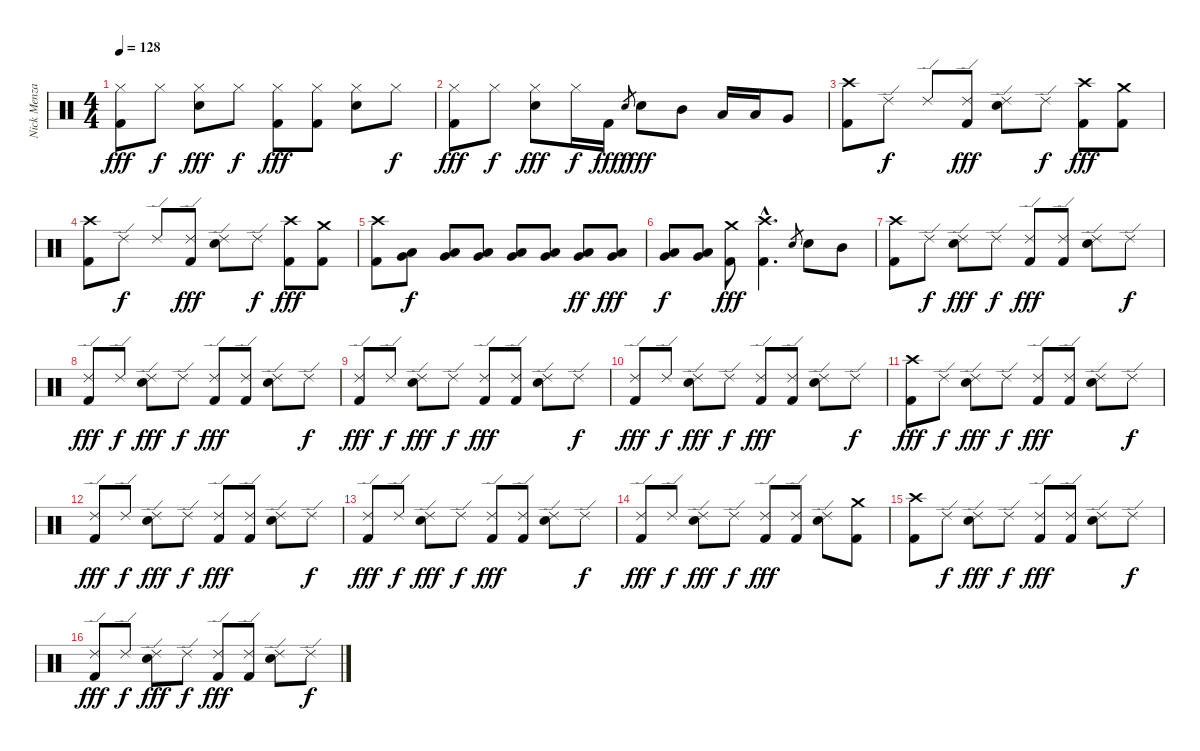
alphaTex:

\track ("Nick Menza" "Nick Menza") {instrument percussion}
\staff {score}
\articulation defaults
\ts (4 4)
\tempo 128
\clef neutral
\ks c
("Hi-Hat (closed)" "Kick (hit) 2").8{dy fff} "Hi-Hat (closed)".8{dy f} ("Hi-Hat (closed)" "Electric Snare (hit)").8{dy fff} "Hi-Hat (closed)".8{dy f} ("Hi-Hat (closed)" "Kick (hit) 2").8{dy fff} ("Hi-Hat (closed)" "Kick (hit) 2").8 ("Hi-Hat (closed)" "Electric Snare (hit)").8 "Hi-Hat (closed)".8{dy f} |
("Hi-Hat (closed)" "Kick (hit) 2").8{dy fff} "Hi-Hat (closed)".8{dy f} ("Hi-Hat (closed)" "Electric Snare (hit)").8{dy fff} "Hi-Hat (closed)".16{dy f} "Kick (hit) 2".16{dy fff} "Electric Snare (hit)".8{gr dy f} "Electric Snare (hit)".8{dy fff} "Mid Tom (hit)".8 "Low Tom (hit)".16 "Low Tom (hit)".16 "Very Low Tom (hit)".8 |
("Crash high (hit)" "Kick (hit) 2").8 "Ride (edge) 2".8{dy f} "Ride (edge) 2".8 ("Ride (edge) 2" "Kick (hit) 2").8{dy fff} ("Ride (edge) 2" "Electric Snare (hit)").8 "Ride (edge) 2".8{dy f} ("Crash high (hit)" "Kick (hit) 2").8{dy fff} ("Crash medium (hit)" "Kick (hit) 2").8 |
("Crash high (hit)" "Kick (hit) 2").8 "Ride (edge) 2".8{dy f} "Ride (edge) 2".8 ("Ride (edge) 2" "Kick (hit) 2").8{dy fff} ("Ride (edge) 2" "Electric Snare (hit)").8 "Ride (edge) 2".8{dy f} ("Crash high (hit)" "Kick (hit) 2").8{dy fff} ("Crash medium (hit)" "Kick (hit) 2").8 |
("Crash high (hit)" "Kick (hit) 2").8 ("Very Low Tom (hit)" "Low Floor Tom (hit)").8{dy f} ("Very Low Tom (hit)" "Low Floor Tom (hit)").8 ("Very Low Tom (hit)" "Low Floor Tom (hit)").8 ("Very Low Tom (hit)" "Low Floor Tom (hit)").8 ("Very Low Tom (hit)" "Low Floor Tom (hit)").8 ("Very Low Tom (hit)" "Low Floor Tom (hit)").8{dy ff} ("Very Low Tom (hit)" "Low Floor Tom (hit)").8{dy fff} |
("Very Low Tom (hit)" "Low Floor Tom (hit)").8{dy f} ("Very Low Tom (hit)" "Low Floor Tom (hit)").8 ("Crash medium (hit)" "Kick (hit) 2").8{dy fff} ("Crash high (hit)"{hac} "Kick (hit) 2"{hac}).4{d} "Electric Snare (hit)".8{gr} "Electric Snare (hit)".8 "Mid Tom (hit)".8 |
("Crash high (hit)" "Kick (hit) 2").8 "Ride (edge) 2".8{dy f} ("Ride (edge) 2" "Electric Snare (hit)").8{dy fff} "Ride (edge) 2".8{dy f} ("Ride (edge) 2" "Kick (hit) 2").8{dy fff} ("Ride (edge) 2" "Kick (hit) 2").8 ("Ride (edge) 2" "Electric Snare (hit)").8 "Ride (edge) 2".8{dy f} |
("Ride (edge) 2" "Kick (hit) 2").8{dy fff} "Ride (edge) 2".8{dy f} ("Ride (edge) 2" "Electric Snare (hit)").8{dy fff} "Ride (edge) 2".8{dy f} ("Ride (edge) 2" "Kick (hit) 2").8{dy fff} ("Ride (edge) 2" "Kick (hit) 2").8 ("Ride (edge) 2" "Electric Snare (hit)").8 "Ride (edge) 2".8{dy f} |
("Ride (edge) 2" "Kick (hit) 2").8{dy fff} "Ride (edge) 2".8{dy f} ("Ride (edge) 2" "Electric Snare (hit)").8{dy fff} "Ride (edge) 2".8{dy f} ("Ride (edge) 2" "Kick (hit) 2").8{dy fff} ("Ride (edge) 2" "Kick (hit) 2").8 ("Ride (edge) 2" "Electric Snare (hit)").8 "Ride (edge) 2".8{dy f} |
("Ride (edge) 2" "Kick (hit) 2").8{dy fff} "Ride (edge) 2".8{dy f} ("Ride (edge) 2" "Electric Snare (hit)").8{dy fff} "Ride (edge) 2".8{dy f} ("Ride (edge) 2" "Kick (hit) 2").8{dy fff} ("Ride (edge) 2" "Kick (hit) 2").8 ("Ride (edge) 2" "Electric Snare (hit)").8 "Ride (edge) 2".8{dy f} |
("Crash high (hit)" "Kick (hit) 2").8{dy fff} "Ride (edge) 2".8{dy f} ("Ride (edge) 2" "Electric Snare (hit)").8{dy fff} "Ride (edge) 2".8{dy f} ("Ride (edge) 2" "Kick (hit) 2").8{dy fff} ("Ride (edge) 2" "Kick (hit) 2").8 ("Ride (edge) 2" "Electric Snare (hit)").8 "Ride (edge) 2".8{dy f} |
("Ride (edge) 2" "Kick (hit) 2").8{dy fff} "Ride (edge) 2".8{dy f} ("Ride (edge) 2" "Electric Snare (hit)").8{dy fff} "Ride (edge) 2".8{dy f} ("Ride (edge) 2" "Kick (hit) 2").8{dy fff} ("Ride (edge) 2" "Kick (hit) 2").8 ("Ride (edge) 2" "Electric Snare (hit)").8 "Ride (edge) 2".8{dy f} |
("Ride (edge) 2" "Kick (hit) 2").8{dy fff} "Ride (edge) 2".8{dy f} ("Ride (edge) 2" "Electric Snare (hit)").8{dy fff} "Ride (edge) 2".8{dy f} ("Ride (edge) 2" "Kick (hit) 2").8{dy fff} ("Ride (edge) 2" "Kick (hit) 2").8 ("Ride (edge) 2" "Electric Snare (hit)").8 "Ride (edge) 2".8{dy f} |
("Ride (edge) 2" "Kick (hit) 2").8{dy fff} "Ride (edge) 2".8{dy f} ("Ride (edge) 2" "Electric Snare (hit)").8{dy fff} "Ride (edge) 2".8{dy f} ("Ride (edge) 2" "Kick (hit) 2").8{dy fff} ("Ride (edge) 2" "Kick (hit) 2").8 ("Ride (edge) 2" "Electric Snare (hit)").8 ("Crash medium (hit)" "Kick (hit) 2").8 |
("Crash high (hit)" "Kick (hit) 2").8 "Ride (edge) 2".8{dy f} ("Ride (edge) 2" "Electric Snare (hit)").8{dy fff} "Ride (edge) 2".8{dy f} ("Ride (edge) 2" "Kick (hit) 2").8{dy fff} ("Ride (edge) 2" "Kick (hit) 2").8 ("Ride (edge) 2" "Electric Snare (hit)").8 "Ride (edge) 2".8{dy f} |
("Ride (edge) 2" "Kick (hit) 2").8{dy fff} "Ride (edge) 2".8{dy f} ("Ride (edge) 2" "Electric Snare (hit)").8{dy fff} "Ride (edge) 2".8{dy f} ("Ride (edge) 2" "Kick (hit) 2").8{dy fff} ("Ride (edge) 2" "Kick (hit) 2").8 ("Ride (edge) 2" "Electric Snare (hit)").8 "Ride (edge) 2".8{dy f}
